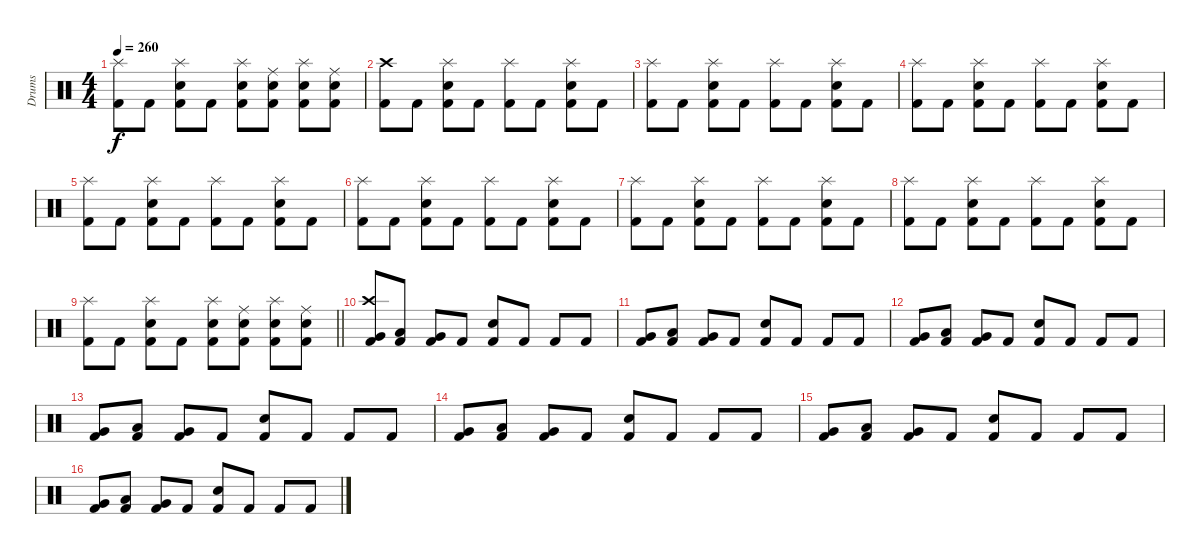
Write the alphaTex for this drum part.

\track ("Drums" "Drums") {instrument percussion}
\staff {score}
\articulation defaults
\ts (4 4)
\tempo 260
\clef neutral
\ks c
("Splash (hit)" "Kick (hit) 2").8{dy f} "Kick (hit) 2".8 ("Splash (hit)" "Electric Snare (hit)" "Kick (hit) 2").8 "Kick (hit) 2".8 ("Splash (hit)" "Electric Snare (hit)" "Kick (hit) 2").8 ("Ride (middle)" "Electric Snare (hit)" "Kick (hit) 2").8 ("Splash (hit)" "Electric Snare (hit)" "Kick (hit) 2").8 ("Ride (middle)" "Electric Snare (hit)" "Kick (hit) 2").8 |
("Crash high (hit)" "Kick (hit) 2").8 "Kick (hit) 2".8 ("Splash (hit)" "Electric Snare (hit)" "Kick (hit) 2").8 "Kick (hit) 2".8 ("Splash (hit)" "Kick (hit) 2").8 "Kick (hit) 2".8 ("Splash (hit)" "Electric Snare (hit)" "Kick (hit) 2").8 "Kick (hit) 2".8 |
("Splash (hit)" "Kick (hit) 2").8 "Kick (hit) 2".8 ("Splash (hit)" "Electric Snare (hit)" "Kick (hit) 2").8 "Kick (hit) 2".8 ("Splash (hit)" "Kick (hit) 2").8 "Kick (hit) 2".8 ("Splash (hit)" "Electric Snare (hit)" "Kick (hit) 2").8 "Kick (hit) 2".8 |
("Splash (hit)" "Kick (hit) 2").8 "Kick (hit) 2".8 ("Splash (hit)" "Electric Snare (hit)" "Kick (hit) 2").8 "Kick (hit) 2".8 ("Splash (hit)" "Kick (hit) 2").8 "Kick (hit) 2".8 ("Splash (hit)" "Electric Snare (hit)" "Kick (hit) 2").8 "Kick (hit) 2".8 |
("Splash (hit)" "Kick (hit) 2").8 "Kick (hit) 2".8 ("Splash (hit)" "Electric Snare (hit)" "Kick (hit) 2").8 "Kick (hit) 2".8 ("Splash (hit)" "Kick (hit) 2").8 "Kick (hit) 2".8 ("Splash (hit)" "Electric Snare (hit)" "Kick (hit) 2").8 "Kick (hit) 2".8 |
("Splash (hit)" "Kick (hit) 2").8 "Kick (hit) 2".8 ("Splash (hit)" "Electric Snare (hit)" "Kick (hit) 2").8 "Kick (hit) 2".8 ("Splash (hit)" "Kick (hit) 2").8 "Kick (hit) 2".8 ("Splash (hit)" "Electric Snare (hit)" "Kick (hit) 2").8 "Kick (hit) 2".8 |
("Splash (hit)" "Kick (hit) 2").8 "Kick (hit) 2".8 ("Splash (hit)" "Electric Snare (hit)" "Kick (hit) 2").8 "Kick (hit) 2".8 ("Splash (hit)" "Kick (hit) 2").8 "Kick (hit) 2".8 ("Splash (hit)" "Electric Snare (hit)" "Kick (hit) 2").8 "Kick (hit) 2".8 |
("Splash (hit)" "Kick (hit) 2").8 "Kick (hit) 2".8 ("Splash (hit)" "Electric Snare (hit)" "Kick (hit) 2").8 "Kick (hit) 2".8 ("Splash (hit)" "Kick (hit) 2").8 "Kick (hit) 2".8 ("Splash (hit)" "Electric Snare (hit)" "Kick (hit) 2").8 "Kick (hit) 2".8 |
\barLineRight lightlight
("Splash (hit)" "Kick (hit) 2").8 "Kick (hit) 2".8 ("Splash (hit)" "Electric Snare (hit)" "Kick (hit) 2").8 "Kick (hit) 2".8 ("Splash (hit)" "Electric Snare (hit)" "Kick (hit) 2").8 ("Ride (middle)" "Electric Snare (hit)" "Kick (hit) 2").8 ("Splash (hit)" "Electric Snare (hit)" "Kick (hit) 2").8 ("Ride (middle)" "Electric Snare (hit)" "Kick (hit) 2").8 |
("Crash high (hit)" "Very Low Tom (hit)" "Kick (hit) 2").8 ("Low Floor Tom (hit)" "Kick (hit) 2").8 ("Very Low Tom (hit)" "Kick (hit) 2").8 "Kick (hit) 2".8 ("Electric Snare (hit)" "Kick (hit) 2").8 "Kick (hit) 2".8 "Kick (hit) 2".8 "Kick (hit) 2".8 |
("Very Low Tom (hit)" "Kick (hit) 2").8 ("Low Floor Tom (hit)" "Kick (hit) 2").8 ("Very Low Tom (hit)" "Kick (hit) 2").8 "Kick (hit) 2".8 ("Electric Snare (hit)" "Kick (hit) 2").8 "Kick (hit) 2".8 "Kick (hit) 2".8 "Kick (hit) 2".8 |
("Very Low Tom (hit)" "Kick (hit) 2").8 ("Low Floor Tom (hit)" "Kick (hit) 2").8 ("Very Low Tom (hit)" "Kick (hit) 2").8 "Kick (hit) 2".8 ("Electric Snare (hit)" "Kick (hit) 2").8 "Kick (hit) 2".8 "Kick (hit) 2".8 "Kick (hit) 2".8 |
("Very Low Tom (hit)" "Kick (hit) 2").8 ("Low Floor Tom (hit)" "Kick (hit) 2").8 ("Very Low Tom (hit)" "Kick (hit) 2").8 "Kick (hit) 2".8 ("Electric Snare (hit)" "Kick (hit) 2").8 "Kick (hit) 2".8 "Kick (hit) 2".8 "Kick (hit) 2".8 |
("Very Low Tom (hit)" "Kick (hit) 2").8 ("Low Floor Tom (hit)" "Kick (hit) 2").8 ("Very Low Tom (hit)" "Kick (hit) 2").8 "Kick (hit) 2".8 ("Electric Snare (hit)" "Kick (hit) 2").8 "Kick (hit) 2".8 "Kick (hit) 2".8 "Kick (hit) 2".8 |
("Very Low Tom (hit)" "Kick (hit) 2").8 ("Low Floor Tom (hit)" "Kick (hit) 2").8 ("Very Low Tom (hit)" "Kick (hit) 2").8 "Kick (hit) 2".8 ("Electric Snare (hit)" "Kick (hit) 2").8 "Kick (hit) 2".8 "Kick (hit) 2".8 "Kick (hit) 2".8 |
("Very Low Tom (hit)" "Kick (hit) 2").8 ("Low Floor Tom (hit)" "Kick (hit) 2").8 ("Very Low Tom (hit)" "Kick (hit) 2").8 "Kick (hit) 2".8 ("Electric Snare (hit)" "Kick (hit) 2").8 "Kick (hit) 2".8 "Kick (hit) 2".8 "Kick (hit) 2".8
